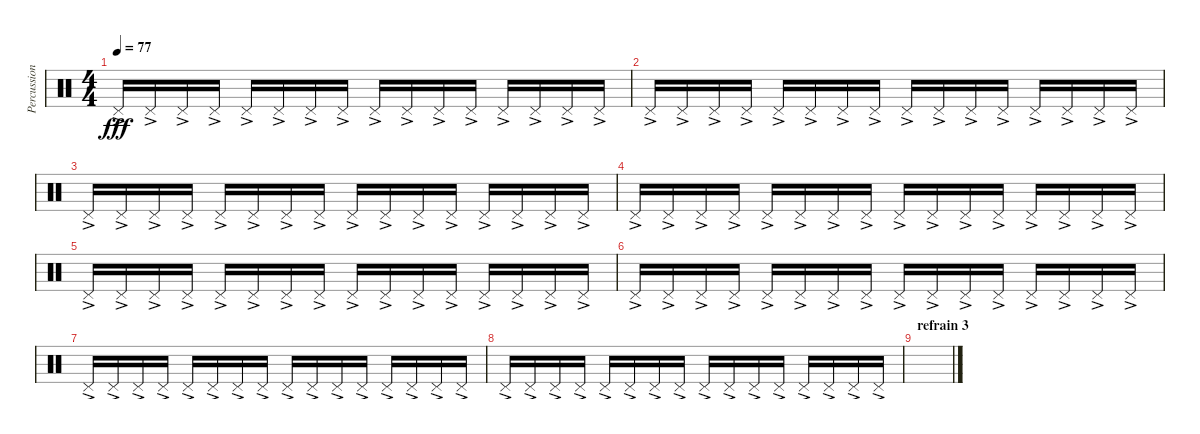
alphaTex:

\track ("Percussions (hit-hat)" "Percussion") {instrument percussion}
\staff {score}
\articulation defaults
\ts (4 4)
\tempo 77
\clef neutral
\ks c "Pedal Hi-Hat (hit)"{ac}.16{dy fff} "Pedal Hi-Hat (hit)"{ac}.16 "Pedal Hi-Hat (hit)"{ac}.16 "Pedal Hi-Hat (hit)"{ac}.16 "Pedal Hi-Hat (hit)"{ac}.16 "Pedal Hi-Hat (hit)"{ac}.16 "Pedal Hi-Hat (hit)"{ac}.16 "Pedal Hi-Hat (hit)"{ac}.16 "Pedal Hi-Hat (hit)"{ac}.16 "Pedal Hi-Hat (hit)"{ac}.16 "Pedal Hi-Hat (hit)"{ac}.16 "Pedal Hi-Hat (hit)"{ac}.16 "Pedal Hi-Hat (hit)"{ac}.16 "Pedal Hi-Hat (hit)"{ac}.16 "Pedal Hi-Hat (hit)"{ac}.16 "Pedal Hi-Hat (hit)"{ac}.16
|
"Pedal Hi-Hat (hit)"{ac}.16 "Pedal Hi-Hat (hit)"{ac}.16 "Pedal Hi-Hat (hit)"{ac}.16 "Pedal Hi-Hat (hit)"{ac}.16 "Pedal Hi-Hat (hit)"{ac}.16 "Pedal Hi-Hat (hit)"{ac}.16 "Pedal Hi-Hat (hit)"{ac}.16 "Pedal Hi-Hat (hit)"{ac}.16 "Pedal Hi-Hat (hit)"{ac}.16 "Pedal Hi-Hat (hit)"{ac}.16 "Pedal Hi-Hat (hit)"{ac}.16 "Pedal Hi-Hat (hit)"{ac}.16 "Pedal Hi-Hat (hit)"{ac}.16 "Pedal Hi-Hat (hit)"{ac}.16 "Pedal Hi-Hat (hit)"{ac}.16 "Pedal Hi-Hat (hit)"{ac}.16 |
"Pedal Hi-Hat (hit)"{ac}.16 "Pedal Hi-Hat (hit)"{ac}.16 "Pedal Hi-Hat (hit)"{ac}.16 "Pedal Hi-Hat (hit)"{ac}.16 "Pedal Hi-Hat (hit)"{ac}.16 "Pedal Hi-Hat (hit)"{ac}.16 "Pedal Hi-Hat (hit)"{ac}.16 "Pedal Hi-Hat (hit)"{ac}.16 "Pedal Hi-Hat (hit)"{ac}.16 "Pedal Hi-Hat (hit)"{ac}.16 "Pedal Hi-Hat (hit)"{ac}.16 "Pedal Hi-Hat (hit)"{ac}.16 "Pedal Hi-Hat (hit)"{ac}.16 "Pedal Hi-Hat (hit)"{ac}.16 "Pedal Hi-Hat (hit)"{ac}.16 "Pedal Hi-Hat (hit)"{ac}.16 |
"Pedal Hi-Hat (hit)"{ac}.16 "Pedal Hi-Hat (hit)"{ac}.16 "Pedal Hi-Hat (hit)"{ac}.16 "Pedal Hi-Hat (hit)"{ac}.16 "Pedal Hi-Hat (hit)"{ac}.16 "Pedal Hi-Hat (hit)"{ac}.16 "Pedal Hi-Hat (hit)"{ac}.16 "Pedal Hi-Hat (hit)"{ac}.16 "Pedal Hi-Hat (hit)"{ac}.16 "Pedal Hi-Hat (hit)"{ac}.16 "Pedal Hi-Hat (hit)"{ac}.16 "Pedal Hi-Hat (hit)"{ac}.16 "Pedal Hi-Hat (hit)"{ac}.16 "Pedal Hi-Hat (hit)"{ac}.16 "Pedal Hi-Hat (hit)"{ac}.16 "Pedal Hi-Hat (hit)"{ac}.16 |
"Pedal Hi-Hat (hit)"{ac}.16 "Pedal Hi-Hat (hit)"{ac}.16 "Pedal Hi-Hat (hit)"{ac}.16 "Pedal Hi-Hat (hit)"{ac}.16 "Pedal Hi-Hat (hit)"{ac}.16 "Pedal Hi-Hat (hit)"{ac}.16 "Pedal Hi-Hat (hit)"{ac}.16 "Pedal Hi-Hat (hit)"{ac}.16 "Pedal Hi-Hat (hit)"{ac}.16 "Pedal Hi-Hat (hit)"{ac}.16 "Pedal Hi-Hat (hit)"{ac}.16 "Pedal Hi-Hat (hit)"{ac}.16 "Pedal Hi-Hat (hit)"{ac}.16 "Pedal Hi-Hat (hit)"{ac}.16 "Pedal Hi-Hat (hit)"{ac}.16 "Pedal Hi-Hat (hit)"{ac}.16 |
"Pedal Hi-Hat (hit)"{ac}.16 "Pedal Hi-Hat (hit)"{ac}.16 "Pedal Hi-Hat (hit)"{ac}.16 "Pedal Hi-Hat (hit)"{ac}.16 "Pedal Hi-Hat (hit)"{ac}.16 "Pedal Hi-Hat (hit)"{ac}.16 "Pedal Hi-Hat (hit)"{ac}.16 "Pedal Hi-Hat (hit)"{ac}.16 "Pedal Hi-Hat (hit)"{ac}.16 "Pedal Hi-Hat (hit)"{ac}.16 "Pedal Hi-Hat (hit)"{ac}.16 "Pedal Hi-Hat (hit)"{ac}.16 "Pedal Hi-Hat (hit)"{ac}.16 "Pedal Hi-Hat (hit)"{ac}.16 "Pedal Hi-Hat (hit)"{ac}.16 "Pedal Hi-Hat (hit)"{ac}.16 |
"Pedal Hi-Hat (hit)"{ac}.16 "Pedal Hi-Hat (hit)"{ac}.16 "Pedal Hi-Hat (hit)"{ac}.16 "Pedal Hi-Hat (hit)"{ac}.16 "Pedal Hi-Hat (hit)"{ac}.16 "Pedal Hi-Hat (hit)"{ac}.16 "Pedal Hi-Hat (hit)"{ac}.16 "Pedal Hi-Hat (hit)"{ac}.16 "Pedal Hi-Hat (hit)"{ac}.16 "Pedal Hi-Hat (hit)"{ac}.16 "Pedal Hi-Hat (hit)"{ac}.16 "Pedal Hi-Hat (hit)"{ac}.16 "Pedal Hi-Hat (hit)"{ac}.16 "Pedal Hi-Hat (hit)"{ac}.16 "Pedal Hi-Hat (hit)"{ac}.16 "Pedal Hi-Hat (hit)"{ac}.16 |
"Pedal Hi-Hat (hit)"{ac}.16 "Pedal Hi-Hat (hit)"{ac}.16 "Pedal Hi-Hat (hit)"{ac}.16 "Pedal Hi-Hat (hit)"{ac}.16 "Pedal Hi-Hat (hit)"{ac}.16 "Pedal Hi-Hat (hit)"{ac}.16 "Pedal Hi-Hat (hit)"{ac}.16 "Pedal Hi-Hat (hit)"{ac}.16 "Pedal Hi-Hat (hit)"{ac}.16 "Pedal Hi-Hat (hit)"{ac}.16 "Pedal Hi-Hat (hit)"{ac}.16 "Pedal Hi-Hat (hit)"{ac}.16 "Pedal Hi-Hat (hit)"{ac}.16 "Pedal Hi-Hat (hit)"{ac}.16 "Pedal Hi-Hat (hit)"{ac}.16 "Pedal Hi-Hat (hit)"{ac}.16 |
\section ("" "refrain 3")
